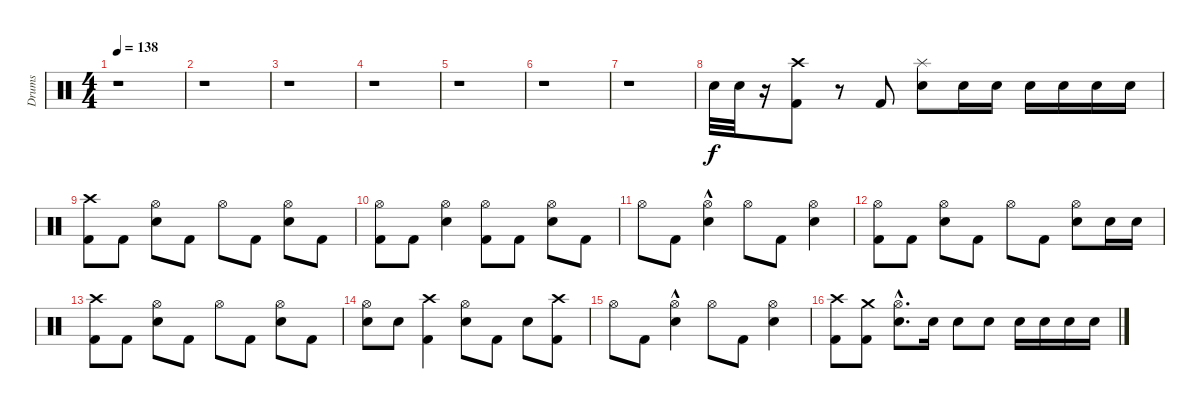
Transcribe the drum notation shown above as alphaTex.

\track ("Drums" "Drums") {instrument percussion}
\staff {score}
\articulation defaults
\ts (4 4)
\tempo 138
\clef neutral
\ks c
r.1{dy f} |
r.1 |
r.1 |
r.1 |
r.1 |
r.1 |
r.1 |
"Electric Snare (hit)".32 "Electric Snare (hit)".32 r.16 ("Crash high (hit)" "Kick (hit) 2").8 r.8 "Kick (hit) 2".8 ("Electric Snare (hit)" "Splash (hit)").8 "Electric Snare (hit)".16 "Electric Snare (hit)".16 "Electric Snare (hit)".16 "Electric Snare (hit)".16 "Electric Snare (hit)".16 "Electric Snare (hit)".16 |
("Kick (hit) 2" "Crash high (hit)").8 "Kick (hit) 2".8 ("Electric Snare (hit)" "Hi-Hat (open)").8 "Kick (hit) 2".8 "Hi-Hat (open)".8 "Kick (hit) 2".8 ("Electric Snare (hit)" "Hi-Hat (open)").8 "Kick (hit) 2".8 |
("Kick (hit) 2" "Hi-Hat (open)").8 "Kick (hit) 2".8 ("Hi-Hat (open)" "Electric Snare (hit)").4 ("Kick (hit) 2" "Hi-Hat (open)").8 "Kick (hit) 2".8 ("Electric Snare (hit)" "Hi-Hat (open)").8 "Kick (hit) 2".8 |
"Hi-Hat (open)".8 "Kick (hit) 2".8 ("Hi-Hat (open)" "Electric Snare (hit)"{hac}).4 "Hi-Hat (open)".8 "Kick (hit) 2".8 ("Hi-Hat (open)" "Electric Snare (hit)").4 |
("Kick (hit) 2" "Hi-Hat (open)").8 "Kick (hit) 2".8 ("Electric Snare (hit)" "Hi-Hat (open)").8 "Kick (hit) 2".8 "Hi-Hat (open)".8 "Kick (hit) 2".8 ("Electric Snare (hit)" "Hi-Hat (open)").8 "Electric Snare (hit)".16 "Electric Snare (hit)".16 |
("Crash high (hit)" "Kick (hit) 2").8 "Kick (hit) 2".8 ("Electric Snare (hit)" "Hi-Hat (open)").8 "Kick (hit) 2".8 "Hi-Hat (open)".8 "Kick (hit) 2".8 ("Electric Snare (hit)" "Hi-Hat (open)").8 "Kick (hit) 2".8 |
("Electric Snare (hit)" "Hi-Hat (open)").8 "Electric Snare (hit)".8 ("Crash high (hit)" "Kick (hit) 2").4 ("Electric Snare (hit)" "Hi-Hat (open)").8 "Kick (hit) 2".8 "Electric Snare (hit)".8 ("Crash high (hit)" "Kick (hit) 2").8 |
"Hi-Hat (open)".8 "Kick (hit) 2".8 ("Hi-Hat (open)" "Electric Snare (hit)"{hac}).4 "Hi-Hat (open)".8 "Kick (hit) 2".8 ("Electric Snare (hit)" "Hi-Hat (open)").4 |
("Crash high (hit)" "Kick (hit) 2").8 ("Crash medium (hit)" "Kick (hit) 2").8 ("Electric Snare (hit)"{hac} "Hi-Hat (open)"{hac}).8{d} "Electric Snare (hit)".16 "Electric Snare (hit)".8 "Electric Snare (hit)".8 "Electric Snare (hit)".16 "Electric Snare (hit)".16 "Electric Snare (hit)".16 "Electric Snare (hit)".16
